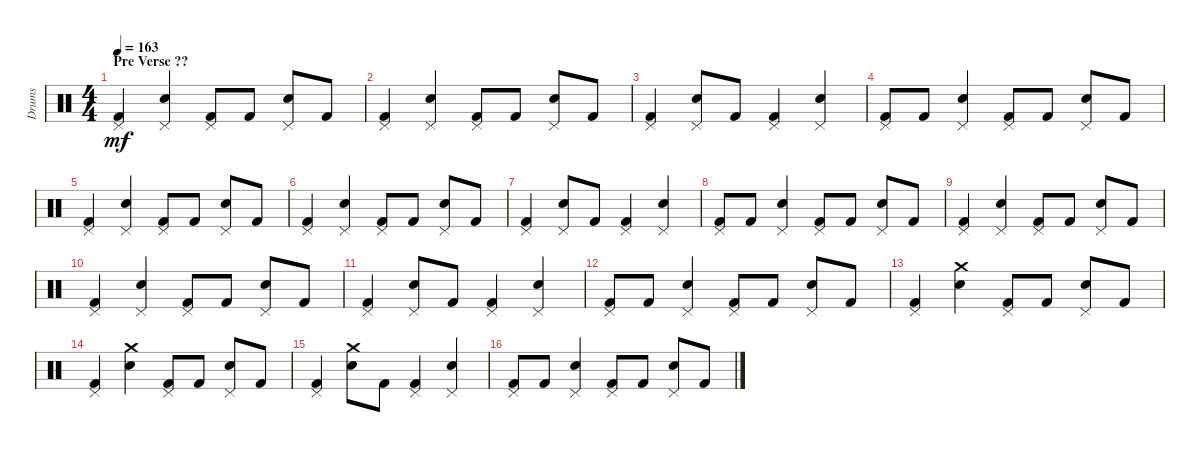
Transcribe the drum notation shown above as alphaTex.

\track ("Drums" "Drums") {instrument percussion}
\staff {score}
\articulation defaults
\ts (4 4)
\section ("" "Pre Verse ??")
\tempo 163
\clef neutral
\ks c
("Pedal Hi-Hat (hit)" "Kick (hit) 2").4{dy mf} ("Pedal Hi-Hat (hit)" "Electric Snare (hit)").4 ("Pedal Hi-Hat (hit)" "Kick (hit) 2").8 "Kick (hit) 2".8 ("Pedal Hi-Hat (hit)" "Electric Snare (hit)").8 "Kick (hit) 2".8 |
("Pedal Hi-Hat (hit)" "Kick (hit) 2").4 ("Pedal Hi-Hat (hit)" "Electric Snare (hit)").4 ("Pedal Hi-Hat (hit)" "Kick (hit) 2").8 "Kick (hit) 2".8 ("Pedal Hi-Hat (hit)" "Electric Snare (hit)").8 "Kick (hit) 2".8 |
("Pedal Hi-Hat (hit)" "Kick (hit) 2").4 ("Pedal Hi-Hat (hit)" "Electric Snare (hit)").8 "Kick (hit) 2".8 ("Pedal Hi-Hat (hit)" "Kick (hit) 2").4 ("Pedal Hi-Hat (hit)" "Electric Snare (hit)").4 |
("Pedal Hi-Hat (hit)" "Kick (hit) 2").8 "Kick (hit) 2".8 ("Pedal Hi-Hat (hit)" "Electric Snare (hit)").4 ("Pedal Hi-Hat (hit)" "Kick (hit) 2").8 "Kick (hit) 2".8 ("Pedal Hi-Hat (hit)" "Electric Snare (hit)").8 "Kick (hit) 2".8 |
("Pedal Hi-Hat (hit)" "Kick (hit) 2").4 ("Pedal Hi-Hat (hit)" "Electric Snare (hit)").4 ("Pedal Hi-Hat (hit)" "Kick (hit) 2").8 "Kick (hit) 2".8 ("Pedal Hi-Hat (hit)" "Electric Snare (hit)").8 "Kick (hit) 2".8 |
("Pedal Hi-Hat (hit)" "Kick (hit) 2").4 ("Pedal Hi-Hat (hit)" "Electric Snare (hit)").4 ("Pedal Hi-Hat (hit)" "Kick (hit) 2").8 "Kick (hit) 2".8 ("Pedal Hi-Hat (hit)" "Electric Snare (hit)").8 "Kick (hit) 2".8 |
("Pedal Hi-Hat (hit)" "Kick (hit) 2").4 ("Pedal Hi-Hat (hit)" "Electric Snare (hit)").8 "Kick (hit) 2".8 ("Pedal Hi-Hat (hit)" "Kick (hit) 2").4 ("Pedal Hi-Hat (hit)" "Electric Snare (hit)").4 |
("Pedal Hi-Hat (hit)" "Kick (hit) 2").8 "Kick (hit) 2".8 ("Pedal Hi-Hat (hit)" "Electric Snare (hit)").4 ("Pedal Hi-Hat (hit)" "Kick (hit) 2").8 "Kick (hit) 2".8 ("Pedal Hi-Hat (hit)" "Electric Snare (hit)").8 "Kick (hit) 2".8 |
("Pedal Hi-Hat (hit)" "Kick (hit) 2").4 ("Pedal Hi-Hat (hit)" "Electric Snare (hit)").4 ("Pedal Hi-Hat (hit)" "Kick (hit) 2").8 "Kick (hit) 2".8 ("Pedal Hi-Hat (hit)" "Electric Snare (hit)").8 "Kick (hit) 2".8 |
("Pedal Hi-Hat (hit)" "Kick (hit) 2").4 ("Pedal Hi-Hat (hit)" "Electric Snare (hit)").4 ("Pedal Hi-Hat (hit)" "Kick (hit) 2").8 "Kick (hit) 2".8 ("Pedal Hi-Hat (hit)" "Electric Snare (hit)").8 "Kick (hit) 2".8 |
("Pedal Hi-Hat (hit)" "Kick (hit) 2").4 ("Pedal Hi-Hat (hit)" "Electric Snare (hit)").8 "Kick (hit) 2".8 ("Pedal Hi-Hat (hit)" "Kick (hit) 2").4 ("Pedal Hi-Hat (hit)" "Electric Snare (hit)").4 |
("Pedal Hi-Hat (hit)" "Kick (hit) 2").8 "Kick (hit) 2".8 ("Pedal Hi-Hat (hit)" "Electric Snare (hit)").4 ("Pedal Hi-Hat (hit)" "Kick (hit) 2").8 "Kick (hit) 2".8 ("Pedal Hi-Hat (hit)" "Electric Snare (hit)").8 "Kick (hit) 2".8 |
("Pedal Hi-Hat (hit)" "Kick (hit) 2").4 ("Crash medium (hit)" "Electric Snare (hit)").4 ("Pedal Hi-Hat (hit)" "Kick (hit) 2").8 "Kick (hit) 2".8 ("Pedal Hi-Hat (hit)" "Electric Snare (hit)").8 "Kick (hit) 2".8 |
("Pedal Hi-Hat (hit)" "Kick (hit) 2").4 ("Crash medium (hit)" "Electric Snare (hit)").4 ("Pedal Hi-Hat (hit)" "Kick (hit) 2").8 "Kick (hit) 2".8 ("Pedal Hi-Hat (hit)" "Electric Snare (hit)").8 "Kick (hit) 2".8 |
("Pedal Hi-Hat (hit)" "Kick (hit) 2").4 ("Crash medium (hit)" "Electric Snare (hit)").8 "Kick (hit) 2".8 ("Pedal Hi-Hat (hit)" "Kick (hit) 2").4 ("Pedal Hi-Hat (hit)" "Electric Snare (hit)").4 |
("Pedal Hi-Hat (hit)" "Kick (hit) 2").8 "Kick (hit) 2".8 ("Pedal Hi-Hat (hit)" "Electric Snare (hit)").4 ("Pedal Hi-Hat (hit)" "Kick (hit) 2").8 "Kick (hit) 2".8 ("Pedal Hi-Hat (hit)" "Electric Snare (hit)").8 "Kick (hit) 2".8
